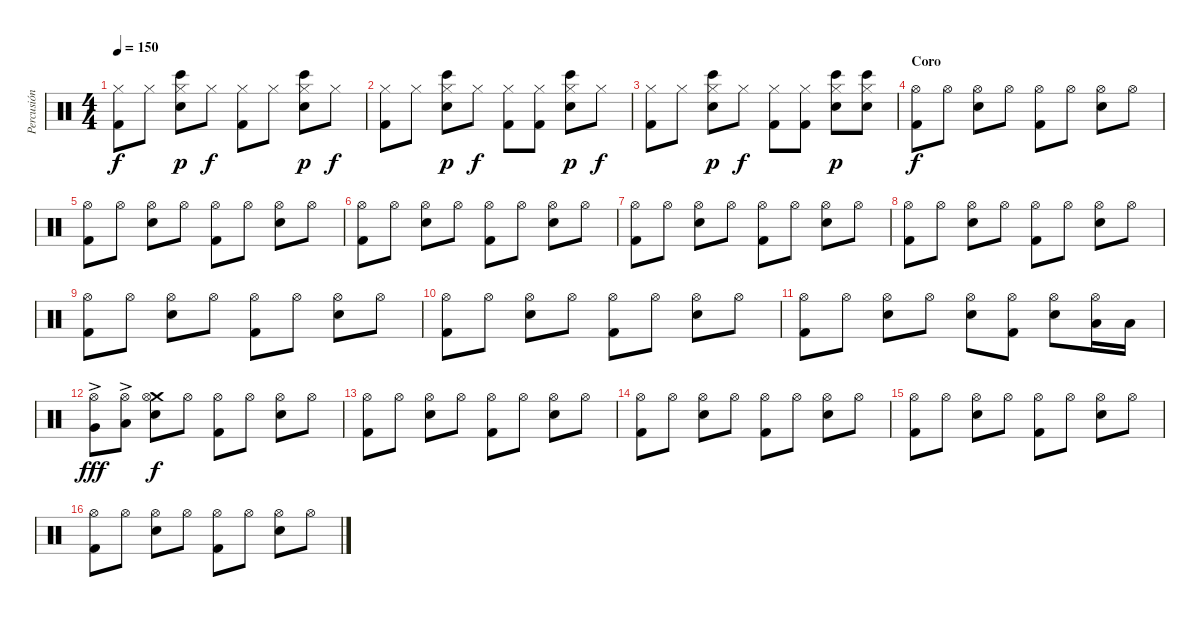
\track ("Percusión" "Percusión") {instrument percussion}
\staff {score}
\articulation defaults
\ts (4 4)
\tempo 150
\clef neutral
\ks c
("Hi-Hat (closed)" "Kick (hit) 2").8{dy f} "Hi-Hat (closed)".8 ("Hi-Hat (closed)" "Bongo High (hit)" "Snare (hit) 2").8{dy p} "Hi-Hat (closed)".8{dy f} ("Hi-Hat (closed)" "Kick (hit) 2").8 "Hi-Hat (closed)".8 ("Hi-Hat (closed)" "Bongo High (hit)" "Snare (hit) 2").8{dy p} "Hi-Hat (closed)".8{dy f} |
("Hi-Hat (closed)" "Kick (hit) 2").8 "Hi-Hat (closed)".8 ("Hi-Hat (closed)" "Bongo High (hit)" "Snare (hit) 2").8{dy p} "Hi-Hat (closed)".8{dy f} ("Hi-Hat (closed)" "Kick (hit) 2").8 ("Hi-Hat (closed)" "Kick (hit) 2").8 ("Hi-Hat (closed)" "Bongo High (hit)" "Snare (hit) 2").8{dy p} "Hi-Hat (closed)".8{dy f} |
("Hi-Hat (closed)" "Kick (hit) 2").8 "Hi-Hat (closed)".8 ("Hi-Hat (closed)" "Bongo High (hit)" "Snare (hit) 2").8{dy p} "Hi-Hat (closed)".8{dy f} ("Hi-Hat (closed)" "Kick (hit) 2").8 ("Hi-Hat (closed)" "Kick (hit) 2").8 ("Hi-Hat (closed)" "Bongo High (hit)" "Snare (hit) 2").8{dy p} ("Hi-Hat (closed)" "Bongo High (hit)" "Snare (hit) 2").8 |
\section ("" "Coro")
("Kick (hit) 2" "Hi-Hat (open)").8{dy f} "Hi-Hat (open)".8 ("Snare (hit) 2" "Hi-Hat (open)").8 "Hi-Hat (open)".8 ("Kick (hit) 2" "Hi-Hat (open)").8 "Hi-Hat (open)".8 ("Snare (hit) 2" "Hi-Hat (open)").8 "Hi-Hat (open)".8 |
("Kick (hit) 2" "Hi-Hat (open)").8 "Hi-Hat (open)".8 ("Snare (hit) 2" "Hi-Hat (open)").8 "Hi-Hat (open)".8 ("Kick (hit) 2" "Hi-Hat (open)").8 "Hi-Hat (open)".8 ("Snare (hit) 2" "Hi-Hat (open)").8 "Hi-Hat (open)".8 |
("Kick (hit) 2" "Hi-Hat (open)").8 "Hi-Hat (open)".8 ("Snare (hit) 2" "Hi-Hat (open)").8 "Hi-Hat (open)".8 ("Kick (hit) 2" "Hi-Hat (open)").8 "Hi-Hat (open)".8 ("Snare (hit) 2" "Hi-Hat (open)").8 "Hi-Hat (open)".8 |
("Kick (hit) 2" "Hi-Hat (open)").8 "Hi-Hat (open)".8 ("Snare (hit) 2" "Hi-Hat (open)").8 "Hi-Hat (open)".8 ("Kick (hit) 2" "Hi-Hat (open)").8 "Hi-Hat (open)".8 ("Snare (hit) 2" "Hi-Hat (open)").8 "Hi-Hat (open)".8 |
("Kick (hit) 2" "Hi-Hat (open)").8 "Hi-Hat (open)".8 ("Snare (hit) 2" "Hi-Hat (open)").8 "Hi-Hat (open)".8 ("Kick (hit) 2" "Hi-Hat (open)").8 "Hi-Hat (open)".8 ("Snare (hit) 2" "Hi-Hat (open)").8 "Hi-Hat (open)".8 |
("Kick (hit) 2" "Hi-Hat (open)").8 "Hi-Hat (open)".8 ("Snare (hit) 2" "Hi-Hat (open)").8 "Hi-Hat (open)".8 ("Kick (hit) 2" "Hi-Hat (open)").8 "Hi-Hat (open)".8 ("Snare (hit) 2" "Hi-Hat (open)").8 "Hi-Hat (open)".8 |
("Kick (hit) 2" "Hi-Hat (open)").8 "Hi-Hat (open)".8 ("Snare (hit) 2" "Hi-Hat (open)").8 "Hi-Hat (open)".8 ("Kick (hit) 2" "Hi-Hat (open)").8 "Hi-Hat (open)".8 ("Snare (hit) 2" "Hi-Hat (open)").8 "Hi-Hat (open)".8 |
("Kick (hit) 2" "Hi-Hat (open)").8 "Hi-Hat (open)".8 ("Snare (hit) 2" "Hi-Hat (open)").8 "Hi-Hat (open)".8 ("Snare (hit) 2" "Hi-Hat (open)").8 ("Kick (hit) 2" "Hi-Hat (open)").8 ("Snare (hit) 2" "Hi-Hat (open)").8 ("Low Tom (hit)" "Hi-Hat (open)").16 "Low Tom (hit)".16 |
("Very Low Tom (hit)"{ac} "Hi-Hat (open)").8{dy fff} ("Low Floor Tom (hit)"{ac} "Hi-Hat (open)").8 ("Crash medium (hit)" "Snare (hit) 2" "Hi-Hat (open)").8{dy f} "Hi-Hat (open)".8 ("Kick (hit) 2" "Hi-Hat (open)").8 "Hi-Hat (open)".8 ("Snare (hit) 2" "Hi-Hat (open)").8 "Hi-Hat (open)".8 |
("Kick (hit) 2" "Hi-Hat (open)").8 "Hi-Hat (open)".8 ("Snare (hit) 2" "Hi-Hat (open)").8 "Hi-Hat (open)".8 ("Kick (hit) 2" "Hi-Hat (open)").8 "Hi-Hat (open)".8 ("Snare (hit) 2" "Hi-Hat (open)").8 "Hi-Hat (open)".8 |
("Kick (hit) 2" "Hi-Hat (open)").8 "Hi-Hat (open)".8 ("Snare (hit) 2" "Hi-Hat (open)").8 "Hi-Hat (open)".8 ("Kick (hit) 2" "Hi-Hat (open)").8 "Hi-Hat (open)".8 ("Snare (hit) 2" "Hi-Hat (open)").8 "Hi-Hat (open)".8 |
("Kick (hit) 2" "Hi-Hat (open)").8 "Hi-Hat (open)".8 ("Snare (hit) 2" "Hi-Hat (open)").8 "Hi-Hat (open)".8 ("Kick (hit) 2" "Hi-Hat (open)").8 "Hi-Hat (open)".8 ("Snare (hit) 2" "Hi-Hat (open)").8 "Hi-Hat (open)".8 |
("Kick (hit) 2" "Hi-Hat (open)").8 "Hi-Hat (open)".8 ("Snare (hit) 2" "Hi-Hat (open)").8 "Hi-Hat (open)".8 ("Kick (hit) 2" "Hi-Hat (open)").8 "Hi-Hat (open)".8 ("Snare (hit) 2" "Hi-Hat (open)").8 "Hi-Hat (open)".8
